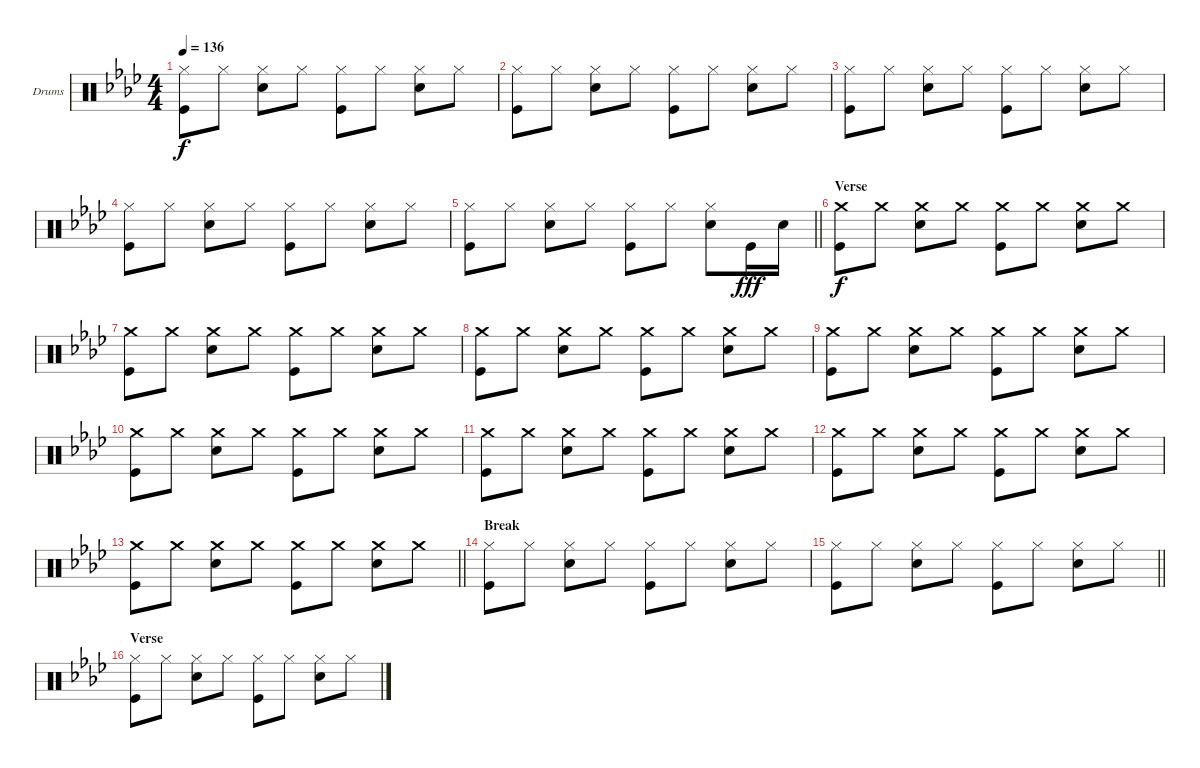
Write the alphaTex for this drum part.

\bracketExtendMode groupsimilarinstruments
\firstSystemTrackNameOrientation horizontal
\otherSystemsTrackNameOrientation horizontal
\track ("Fabrizio" "Drums") {instrument percussion}
\staff {score}
\articulation defaults
\ts (4 4)
\tempo 136
\clef neutral
\ks ab
("Hi-Hat (closed)" "Kick (hit)").8{dy f} "Hi-Hat (closed)".8 ("Hi-Hat (closed)" "Snare (hit) 2").8 "Hi-Hat (closed)".8 ("Hi-Hat (closed)" "Kick (hit)").8 "Hi-Hat (closed)".8 ("Hi-Hat (closed)" "Snare (hit) 2").8 "Hi-Hat (closed)".8 |
("Hi-Hat (closed)" "Kick (hit)").8 "Hi-Hat (closed)".8 ("Hi-Hat (closed)" "Snare (hit) 2").8 "Hi-Hat (closed)".8 ("Hi-Hat (closed)" "Kick (hit)").8 "Hi-Hat (closed)".8 ("Hi-Hat (closed)" "Snare (hit) 2").8 "Hi-Hat (closed)".8 |
("Hi-Hat (closed)" "Kick (hit)").8 "Hi-Hat (closed)".8 ("Hi-Hat (closed)" "Snare (hit) 2").8 "Hi-Hat (closed)".8 ("Hi-Hat (closed)" "Kick (hit)").8 "Hi-Hat (closed)".8 ("Hi-Hat (closed)" "Snare (hit) 2").8 "Hi-Hat (closed)".8 |
("Hi-Hat (closed)" "Kick (hit)").8 "Hi-Hat (closed)".8 ("Hi-Hat (closed)" "Snare (hit) 2").8 "Hi-Hat (closed)".8 ("Hi-Hat (closed)" "Kick (hit)").8 "Hi-Hat (closed)".8 ("Hi-Hat (closed)" "Snare (hit) 2").8 "Hi-Hat (closed)".8 |
\barLineRight lightlight
("Hi-Hat (closed)" "Kick (hit)").8 "Hi-Hat (closed)".8 ("Hi-Hat (closed)" "Snare (hit) 2").8 "Hi-Hat (closed)".8 ("Hi-Hat (closed)" "Kick (hit)").8 "Hi-Hat (closed)".8 ("Hi-Hat (closed)" "Snare (hit) 2").8 "Kick (hit)".16{dy fff} "Snare (hit) 2".16 |
\section ("" "Verse")
("Crash medium (hit)" "Kick (hit)").8{dy f} "Crash medium (hit)".8 ("Crash medium (hit)" "Snare (hit) 2").8 "Crash medium (hit)".8 ("Crash medium (hit)" "Kick (hit)").8 "Crash medium (hit)".8 ("Crash medium (hit)" "Snare (hit) 2").8 "Crash medium (hit)".8 |
("Crash medium (hit)" "Kick (hit)").8 "Crash medium (hit)".8 ("Crash medium (hit)" "Snare (hit) 2").8 "Crash medium (hit)".8 ("Crash medium (hit)" "Kick (hit)").8 "Crash medium (hit)".8 ("Crash medium (hit)" "Snare (hit) 2").8 "Crash medium (hit)".8 |
("Crash medium (hit)" "Kick (hit)").8 "Crash medium (hit)".8 ("Crash medium (hit)" "Snare (hit) 2").8 "Crash medium (hit)".8 ("Crash medium (hit)" "Kick (hit)").8 "Crash medium (hit)".8 ("Crash medium (hit)" "Snare (hit) 2").8 "Crash medium (hit)".8 |
("Crash medium (hit)" "Kick (hit)").8 "Crash medium (hit)".8 ("Crash medium (hit)" "Snare (hit) 2").8 "Crash medium (hit)".8 ("Crash medium (hit)" "Kick (hit)").8 "Crash medium (hit)".8 ("Crash medium (hit)" "Snare (hit) 2").8 "Crash medium (hit)".8 |
("Crash medium (hit)" "Kick (hit)").8 "Crash medium (hit)".8 ("Crash medium (hit)" "Snare (hit) 2").8 "Crash medium (hit)".8 ("Crash medium (hit)" "Kick (hit)").8 "Crash medium (hit)".8 ("Crash medium (hit)" "Snare (hit) 2").8 "Crash medium (hit)".8 |
("Crash medium (hit)" "Kick (hit)").8 "Crash medium (hit)".8 ("Crash medium (hit)" "Snare (hit) 2").8 "Crash medium (hit)".8 ("Crash medium (hit)" "Kick (hit)").8 "Crash medium (hit)".8 ("Crash medium (hit)" "Snare (hit) 2").8 "Crash medium (hit)".8 |
("Crash medium (hit)" "Kick (hit)").8 "Crash medium (hit)".8 ("Crash medium (hit)" "Snare (hit) 2").8 "Crash medium (hit)".8 ("Crash medium (hit)" "Kick (hit)").8 "Crash medium (hit)".8 ("Crash medium (hit)" "Snare (hit) 2").8 "Crash medium (hit)".8 |
\barLineRight lightlight
("Crash medium (hit)" "Kick (hit)").8 "Crash medium (hit)".8 ("Crash medium (hit)" "Snare (hit) 2").8 "Crash medium (hit)".8 ("Crash medium (hit)" "Kick (hit)").8 "Crash medium (hit)".8 ("Crash medium (hit)" "Snare (hit) 2").8 "Crash medium (hit)".8 |
\section ("" "Break")
("Hi-Hat (closed)" "Kick (hit)").8 "Hi-Hat (closed)".8 ("Hi-Hat (closed)" "Snare (hit) 2").8 "Hi-Hat (closed)".8 ("Hi-Hat (closed)" "Kick (hit)").8 "Hi-Hat (closed)".8 ("Hi-Hat (closed)" "Snare (hit) 2").8 "Hi-Hat (closed)".8 |
\barLineRight lightlight
("Hi-Hat (closed)" "Kick (hit)").8 "Hi-Hat (closed)".8 ("Hi-Hat (closed)" "Snare (hit) 2").8 "Hi-Hat (closed)".8 ("Hi-Hat (closed)" "Kick (hit)").8 "Hi-Hat (closed)".8 ("Hi-Hat (closed)" "Snare (hit) 2").8 "Hi-Hat (closed)".8 |
\section ("" "Verse")
("Hi-Hat (closed)" "Kick (hit)").8 "Hi-Hat (closed)".8 ("Hi-Hat (closed)" "Snare (hit) 2").8 "Hi-Hat (closed)".8 ("Hi-Hat (closed)" "Kick (hit)").8 "Hi-Hat (closed)".8 ("Hi-Hat (closed)" "Snare (hit) 2").8 "Hi-Hat (closed)".8
